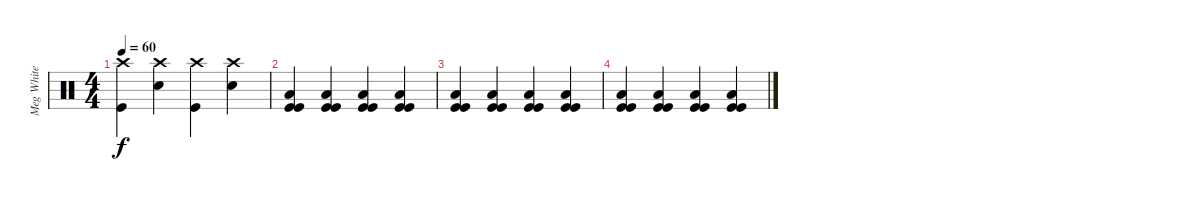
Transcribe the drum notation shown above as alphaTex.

\track ("Meg White (drums)" "Meg White ") {instrument percussion}
\staff {score}
\articulation defaults
\ts (4 4)
\tempo 60
\clef neutral
\ks c
("Kick (hit)" "Crash high (hit)").4{dy f} ("Electric Snare (hit)" "Crash high (hit)").4 ("Kick (hit)" "Crash high (hit)").4 ("Electric Snare (hit)" "Crash high (hit)").4 |
("Low Floor Tom (hit)" "Kick (hit)" "Kick (hit)").4 ("Low Floor Tom (hit)" "Kick (hit)" "Kick (hit)").4 ("Low Floor Tom (hit)" "Kick (hit)" "Kick (hit)").4 ("Low Floor Tom (hit)" "Kick (hit)" "Kick (hit)").4 |
("Low Floor Tom (hit)" "Kick (hit)" "Kick (hit)").4 ("Low Floor Tom (hit)" "Kick (hit)" "Kick (hit)").4 ("Low Floor Tom (hit)" "Kick (hit)" "Kick (hit)").4 ("Low Floor Tom (hit)" "Kick (hit)" "Kick (hit)").4 |
("Low Floor Tom (hit)" "Kick (hit)" "Kick (hit)").4 ("Low Floor Tom (hit)" "Kick (hit)" "Kick (hit)").4 ("Low Floor Tom (hit)" "Kick (hit)" "Kick (hit)").4 ("Low Floor Tom (hit)" "Kick (hit)" "Kick (hit)").4
